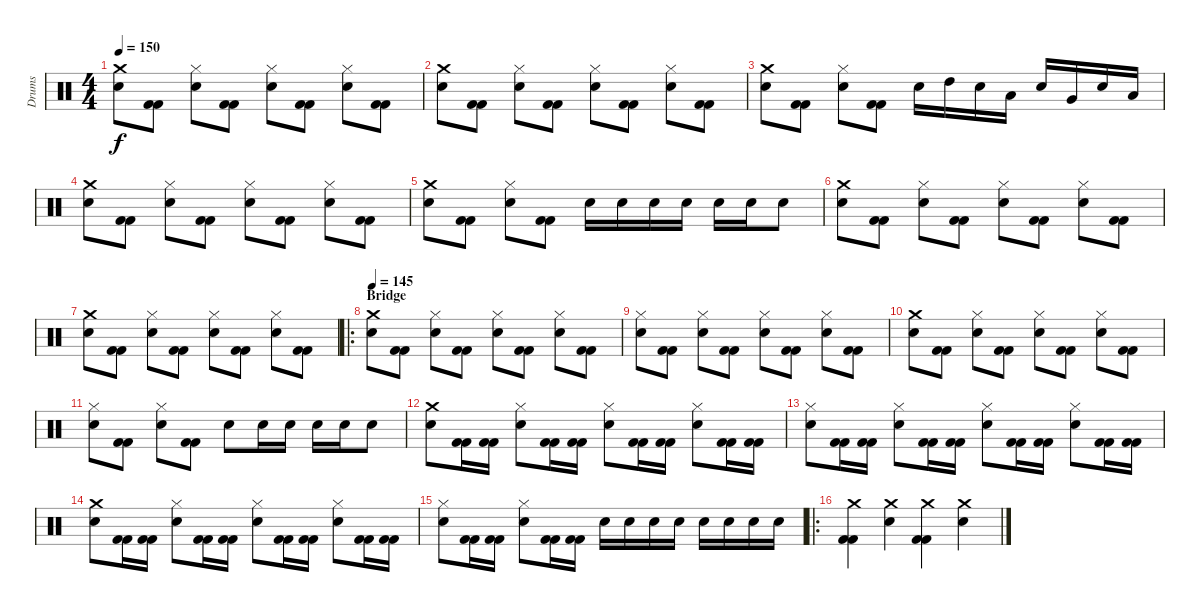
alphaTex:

\track ("Drums" "Drums") {instrument percussion}
\staff {score}
\articulation defaults
\ts (4 4)
\tempo 150
\clef neutral
\ks c
("Crash medium (hit)" "Electric Snare (hit)").8{dy f} ("Kick (hit) 2" "Kick (hit) 2").8 ("Electric Snare (hit)" "Hi-Hat (closed)").8 ("Kick (hit) 2" "Kick (hit) 2").8 ("Electric Snare (hit)" "Hi-Hat (closed)").8 ("Kick (hit) 2" "Kick (hit) 2").8 ("Electric Snare (hit)" "Hi-Hat (closed)").8 ("Kick (hit) 2" "Kick (hit) 2").8 |
("Crash medium (hit)" "Electric Snare (hit)").8 ("Kick (hit) 2" "Kick (hit) 2").8 ("Electric Snare (hit)" "Hi-Hat (closed)").8 ("Kick (hit) 2" "Kick (hit) 2").8 ("Electric Snare (hit)" "Hi-Hat (closed)").8 ("Kick (hit) 2" "Kick (hit) 2").8 ("Electric Snare (hit)" "Hi-Hat (closed)").8 ("Kick (hit) 2" "Kick (hit) 2").8 |
("Crash medium (hit)" "Electric Snare (hit)").8 ("Kick (hit) 2" "Kick (hit) 2").8 ("Electric Snare (hit)" "Hi-Hat (closed)").8 ("Kick (hit) 2" "Kick (hit) 2").8 "Electric Snare (hit)".16 "High Tom (hit)".16 "Electric Snare (hit)".16 "Low Tom (hit)".16 "Electric Snare (hit)".16 "Very Low Tom (hit)".16 "Electric Snare (hit)".16 "Low Floor Tom (hit)".16 |
("Crash medium (hit)" "Electric Snare (hit)").8 ("Kick (hit) 2" "Kick (hit) 2").8 ("Electric Snare (hit)" "Hi-Hat (closed)").8 ("Kick (hit) 2" "Kick (hit) 2").8 ("Electric Snare (hit)" "Hi-Hat (closed)").8 ("Kick (hit) 2" "Kick (hit) 2").8 ("Electric Snare (hit)" "Hi-Hat (closed)").8 ("Kick (hit) 2" "Kick (hit) 2").8 |
("Crash medium (hit)" "Electric Snare (hit)").8 ("Kick (hit) 2" "Kick (hit) 2").8 ("Electric Snare (hit)" "Hi-Hat (closed)").8 ("Kick (hit) 2" "Kick (hit) 2").8 "Electric Snare (hit)".16 "Electric Snare (hit)".16 "Electric Snare (hit)".16 "Electric Snare (hit)".16 "Electric Snare (hit)".16 "Electric Snare (hit)".16 "Electric Snare (hit)".8 |
("Crash medium (hit)" "Electric Snare (hit)").8 ("Kick (hit) 2" "Kick (hit) 2").8 ("Electric Snare (hit)" "Hi-Hat (closed)").8 ("Kick (hit) 2" "Kick (hit) 2").8 ("Electric Snare (hit)" "Hi-Hat (closed)").8 ("Kick (hit) 2" "Kick (hit) 2").8 ("Electric Snare (hit)" "Hi-Hat (closed)").8 ("Kick (hit) 2" "Kick (hit) 2").8 |
("Crash medium (hit)" "Electric Snare (hit)").8 ("Kick (hit) 2" "Kick (hit) 2").8 ("Electric Snare (hit)" "Hi-Hat (closed)").8 ("Kick (hit) 2" "Kick (hit) 2").8 ("Electric Snare (hit)" "Hi-Hat (closed)").8 ("Kick (hit) 2" "Kick (hit) 2").8 ("Electric Snare (hit)" "Hi-Hat (closed)").8 ("Kick (hit) 2" "Kick (hit) 2").8 |
\ro
\section ("" "Bridge")
\tempo 145
("Crash medium (hit)" "Electric Snare (hit)").8 ("Kick (hit) 2" "Kick (hit) 2").8 ("Electric Snare (hit)" "Hi-Hat (closed)").8 ("Kick (hit) 2" "Kick (hit) 2").8 ("Electric Snare (hit)" "Hi-Hat (closed)").8 ("Kick (hit) 2" "Kick (hit) 2").8 ("Electric Snare (hit)" "Hi-Hat (closed)").8 ("Kick (hit) 2" "Kick (hit) 2").8 |
("Hi-Hat (closed)" "Electric Snare (hit)").8 ("Kick (hit) 2" "Kick (hit) 2").8 ("Electric Snare (hit)" "Hi-Hat (closed)").8 ("Kick (hit) 2" "Kick (hit) 2").8 ("Electric Snare (hit)" "Hi-Hat (closed)").8 ("Kick (hit) 2" "Kick (hit) 2").8 ("Electric Snare (hit)" "Hi-Hat (closed)").8 ("Kick (hit) 2" "Kick (hit) 2").8 |
("Crash medium (hit)" "Electric Snare (hit)").8 ("Kick (hit) 2" "Kick (hit) 2").8 ("Electric Snare (hit)" "Hi-Hat (closed)").8 ("Kick (hit) 2" "Kick (hit) 2").8 ("Electric Snare (hit)" "Hi-Hat (closed)").8 ("Kick (hit) 2" "Kick (hit) 2").8 ("Electric Snare (hit)" "Hi-Hat (closed)").8 ("Kick (hit) 2" "Kick (hit) 2").8 |
("Hi-Hat (closed)" "Electric Snare (hit)").8 ("Kick (hit) 2" "Kick (hit) 2").8 ("Electric Snare (hit)" "Hi-Hat (closed)").8 ("Kick (hit) 2" "Kick (hit) 2").8 "Electric Snare (hit)".8 "Electric Snare (hit)".16 "Electric Snare (hit)".16 "Electric Snare (hit)".16 "Electric Snare (hit)".16 "Electric Snare (hit)".8 |
("Crash medium (hit)" "Electric Snare (hit)").8 ("Kick (hit) 2" "Kick (hit) 2").16 ("Kick (hit) 2" "Kick (hit) 2").16 ("Electric Snare (hit)" "Hi-Hat (closed)").8 ("Kick (hit) 2" "Kick (hit) 2").16 ("Kick (hit) 2" "Kick (hit) 2").16 ("Hi-Hat (closed)" "Electric Snare (hit)").8 ("Kick (hit) 2" "Kick (hit) 2").16 ("Kick (hit) 2" "Kick (hit) 2").16 ("Electric Snare (hit)" "Hi-Hat (closed)").8 ("Kick (hit) 2" "Kick (hit) 2").16 ("Kick (hit) 2" "Kick (hit) 2").16 |
("Hi-Hat (closed)" "Electric Snare (hit)").8 ("Kick (hit) 2" "Kick (hit) 2").16 ("Kick (hit) 2" "Kick (hit) 2").16 ("Electric Snare (hit)" "Hi-Hat (closed)").8 ("Kick (hit) 2" "Kick (hit) 2").16 ("Kick (hit) 2" "Kick (hit) 2").16 ("Hi-Hat (closed)" "Electric Snare (hit)").8 ("Kick (hit) 2" "Kick (hit) 2").16 ("Kick (hit) 2" "Kick (hit) 2").16 ("Electric Snare (hit)" "Hi-Hat (closed)").8 ("Kick (hit) 2" "Kick (hit) 2").16 ("Kick (hit) 2" "Kick (hit) 2").16 |
("Crash medium (hit)" "Electric Snare (hit)").8 ("Kick (hit) 2" "Kick (hit) 2").16 ("Kick (hit) 2" "Kick (hit) 2").16 ("Electric Snare (hit)" "Hi-Hat (closed)").8 ("Kick (hit) 2" "Kick (hit) 2").16 ("Kick (hit) 2" "Kick (hit) 2").16 ("Hi-Hat (closed)" "Electric Snare (hit)").8 ("Kick (hit) 2" "Kick (hit) 2").16 ("Kick (hit) 2" "Kick (hit) 2").16 ("Electric Snare (hit)" "Hi-Hat (closed)").8 ("Kick (hit) 2" "Kick (hit) 2").16 ("Kick (hit) 2" "Kick (hit) 2").16 |
("Hi-Hat (closed)" "Electric Snare (hit)").8 ("Kick (hit) 2" "Kick (hit) 2").16 ("Kick (hit) 2" "Kick (hit) 2").16 ("Electric Snare (hit)" "Hi-Hat (closed)").8 ("Kick (hit) 2" "Kick (hit) 2").16 ("Kick (hit) 2" "Kick (hit) 2").16 "Electric Snare (hit)".16 "Electric Snare (hit)".16 "Electric Snare (hit)".16 "Electric Snare (hit)".16 "Electric Snare (hit)".16 "Electric Snare (hit)".16 "Electric Snare (hit)".16 "Electric Snare (hit)".16 |
\ro
("Crash medium (hit)" "Kick (hit) 2" "Kick (hit) 2").4 ("Electric Snare (hit)" "Crash medium (hit)").4 ("Kick (hit) 2" "Kick (hit) 2" "Crash medium (hit)").4 ("Crash medium (hit)" "Electric Snare (hit)").4
